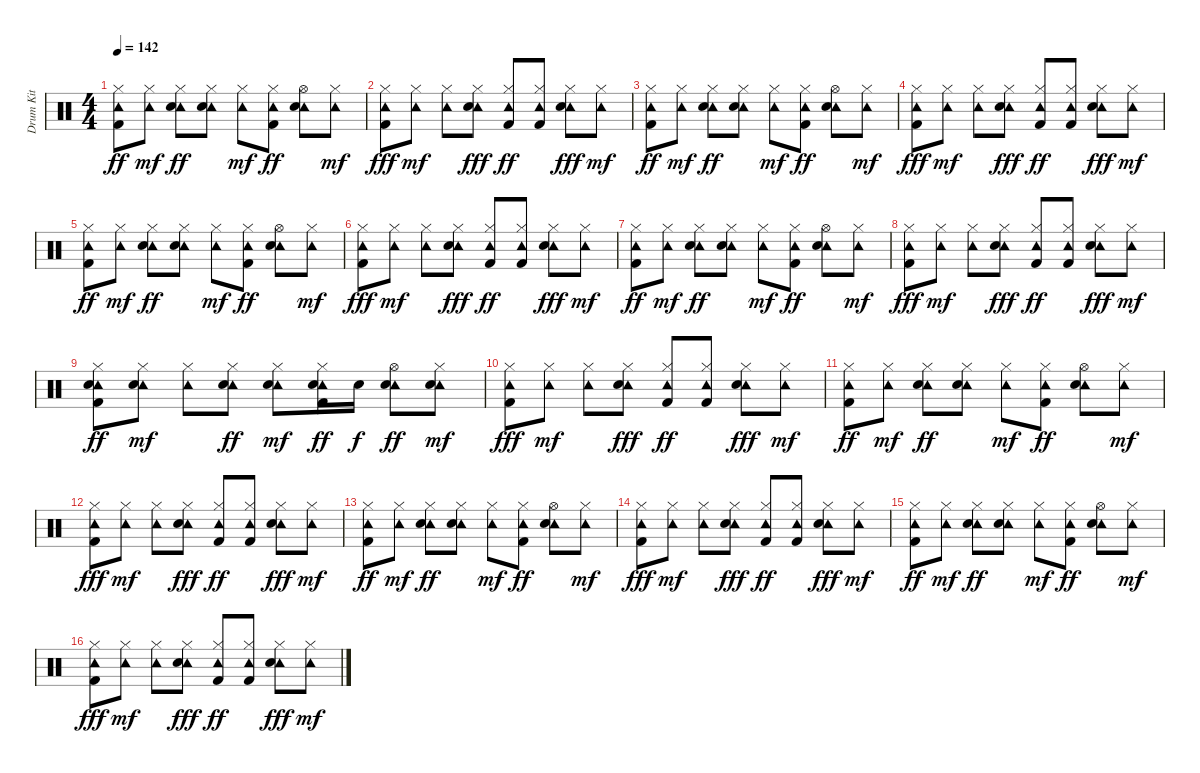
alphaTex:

\track ("Drum Kit" "Drum Kit") {instrument percussion}
\staff {score}
\articulation defaults
\ts (4 4)
\tempo 142
\clef neutral
\ks c
("Tambourine (hit)" "Hi-Hat (closed)" "Kick (hit) 2").8{dy ff} ("Tambourine (hit)" "Hi-Hat (closed)").8{dy mf} ("Tambourine (hit)" "Hi-Hat (closed)" "Electric Snare (hit)").8{dy ff} ("Tambourine (hit)" "Hi-Hat (closed)" "Electric Snare (hit)").8 ("Tambourine (hit)" "Hi-Hat (closed)").8{dy mf} ("Tambourine (hit)" "Hi-Hat (closed)" "Kick (hit) 2").8{dy ff} ("Tambourine (hit)" "Hi-Hat (open)" "Electric Snare (hit)").8 ("Tambourine (hit)" "Hi-Hat (closed)").8{dy mf} |
("Hi-Hat (closed)" "Tambourine (hit)" "Kick (hit) 2").8{dy fff} ("Tambourine (hit)" "Hi-Hat (closed)").8{dy mf} ("Tambourine (hit)" "Hi-Hat (closed)").8 ("Tambourine (hit)" "Hi-Hat (closed)" "Electric Snare (hit)").8{dy fff} ("Tambourine (hit)" "Hi-Hat (closed)" "Kick (hit) 2").8{dy ff} ("Tambourine (hit)" "Hi-Hat (closed)" "Kick (hit) 2").8 ("Tambourine (hit)" "Hi-Hat (closed)" "Electric Snare (hit)").8{dy fff} ("Tambourine (hit)" "Hi-Hat (closed)").8{dy mf} |
("Tambourine (hit)" "Hi-Hat (closed)" "Kick (hit) 2").8{dy ff} ("Tambourine (hit)" "Hi-Hat (closed)").8{dy mf} ("Tambourine (hit)" "Hi-Hat (closed)" "Electric Snare (hit)").8{dy ff} ("Tambourine (hit)" "Hi-Hat (closed)" "Electric Snare (hit)").8 ("Tambourine (hit)" "Hi-Hat (closed)").8{dy mf} ("Tambourine (hit)" "Hi-Hat (closed)" "Kick (hit) 2").8{dy ff} ("Tambourine (hit)" "Hi-Hat (open)" "Electric Snare (hit)").8 ("Tambourine (hit)" "Hi-Hat (closed)").8{dy mf} |
("Hi-Hat (closed)" "Tambourine (hit)" "Kick (hit) 2").8{dy fff} ("Tambourine (hit)" "Hi-Hat (closed)").8{dy mf} ("Tambourine (hit)" "Hi-Hat (closed)").8 ("Tambourine (hit)" "Hi-Hat (closed)" "Electric Snare (hit)").8{dy fff} ("Tambourine (hit)" "Hi-Hat (closed)" "Kick (hit) 2").8{dy ff} ("Tambourine (hit)" "Hi-Hat (closed)" "Kick (hit) 2").8 ("Tambourine (hit)" "Hi-Hat (closed)" "Electric Snare (hit)").8{dy fff} ("Tambourine (hit)" "Hi-Hat (closed)").8{dy mf} |
("Tambourine (hit)" "Hi-Hat (closed)" "Kick (hit) 2").8{dy ff} ("Tambourine (hit)" "Hi-Hat (closed)").8{dy mf} ("Tambourine (hit)" "Hi-Hat (closed)" "Electric Snare (hit)").8{dy ff} ("Tambourine (hit)" "Hi-Hat (closed)" "Electric Snare (hit)").8 ("Tambourine (hit)" "Hi-Hat (closed)").8{dy mf} ("Tambourine (hit)" "Hi-Hat (closed)" "Kick (hit) 2").8{dy ff} ("Tambourine (hit)" "Hi-Hat (open)" "Electric Snare (hit)").8 ("Tambourine (hit)" "Hi-Hat (closed)").8{dy mf} |
("Hi-Hat (closed)" "Tambourine (hit)" "Kick (hit) 2").8{dy fff} ("Tambourine (hit)" "Hi-Hat (closed)").8{dy mf} ("Tambourine (hit)" "Hi-Hat (closed)").8 ("Tambourine (hit)" "Hi-Hat (closed)" "Electric Snare (hit)").8{dy fff} ("Tambourine (hit)" "Hi-Hat (closed)" "Kick (hit) 2").8{dy ff} ("Tambourine (hit)" "Hi-Hat (closed)" "Kick (hit) 2").8 ("Tambourine (hit)" "Hi-Hat (closed)" "Electric Snare (hit)").8{dy fff} ("Tambourine (hit)" "Hi-Hat (closed)").8{dy mf} |
("Tambourine (hit)" "Hi-Hat (closed)" "Kick (hit) 2").8{dy ff} ("Tambourine (hit)" "Hi-Hat (closed)").8{dy mf} ("Tambourine (hit)" "Hi-Hat (closed)" "Electric Snare (hit)").8{dy ff} ("Tambourine (hit)" "Hi-Hat (closed)" "Electric Snare (hit)").8 ("Tambourine (hit)" "Hi-Hat (closed)").8{dy mf} ("Tambourine (hit)" "Hi-Hat (closed)" "Kick (hit) 2").8{dy ff} ("Tambourine (hit)" "Hi-Hat (open)" "Electric Snare (hit)").8 ("Tambourine (hit)" "Hi-Hat (closed)").8{dy mf} |
("Hi-Hat (closed)" "Tambourine (hit)" "Kick (hit) 2").8{dy fff} ("Tambourine (hit)" "Hi-Hat (closed)").8{dy mf} ("Tambourine (hit)" "Hi-Hat (closed)").8 ("Tambourine (hit)" "Hi-Hat (closed)" "Electric Snare (hit)").8{dy fff} ("Tambourine (hit)" "Hi-Hat (closed)" "Kick (hit) 2").8{dy ff} ("Tambourine (hit)" "Hi-Hat (closed)" "Kick (hit) 2").8 ("Tambourine (hit)" "Hi-Hat (closed)" "Electric Snare (hit)").8{dy fff} ("Tambourine (hit)" "Hi-Hat (closed)").8{dy mf} |
("Tambourine (hit)" "Hi-Hat (closed)" "Electric Snare (hit)" "Kick (hit) 2").8{dy ff} ("Tambourine (hit)" "Electric Snare (hit)" "Hi-Hat (closed)").8{dy mf} ("Tambourine (hit)" "Hi-Hat (closed)").8 ("Tambourine (hit)" "Hi-Hat (closed)" "Electric Snare (hit)").8{dy ff} ("Tambourine (hit)" "Electric Snare (hit)" "Hi-Hat (closed)").8{dy mf} ("Tambourine (hit)" "Electric Snare (hit)" "Hi-Hat (closed)" "Kick (hit) 2").16{dy ff} "Electric Snare (hit)".16{dy f} ("Tambourine (hit)" "Hi-Hat (open)" "Electric Snare (hit)").8{dy ff} ("Tambourine (hit)" "Electric Snare (hit)" "Hi-Hat (closed)").8{dy mf} |
("Hi-Hat (closed)" "Tambourine (hit)" "Kick (hit) 2").8{dy fff} ("Tambourine (hit)" "Hi-Hat (closed)").8{dy mf} ("Tambourine (hit)" "Hi-Hat (closed)").8 ("Tambourine (hit)" "Hi-Hat (closed)" "Electric Snare (hit)").8{dy fff} ("Tambourine (hit)" "Hi-Hat (closed)" "Kick (hit) 2").8{dy ff} ("Tambourine (hit)" "Hi-Hat (closed)" "Kick (hit) 2").8 ("Tambourine (hit)" "Hi-Hat (closed)" "Electric Snare (hit)").8{dy fff} ("Tambourine (hit)" "Hi-Hat (closed)").8{dy mf} |
("Tambourine (hit)" "Hi-Hat (closed)" "Kick (hit) 2").8{dy ff} ("Tambourine (hit)" "Hi-Hat (closed)").8{dy mf} ("Tambourine (hit)" "Hi-Hat (closed)" "Electric Snare (hit)").8{dy ff} ("Tambourine (hit)" "Hi-Hat (closed)" "Electric Snare (hit)").8 ("Tambourine (hit)" "Hi-Hat (closed)").8{dy mf} ("Tambourine (hit)" "Hi-Hat (closed)" "Kick (hit) 2").8{dy ff} ("Tambourine (hit)" "Hi-Hat (open)" "Electric Snare (hit)").8 ("Tambourine (hit)" "Hi-Hat (closed)").8{dy mf} |
("Hi-Hat (closed)" "Tambourine (hit)" "Kick (hit) 2").8{dy fff} ("Tambourine (hit)" "Hi-Hat (closed)").8{dy mf} ("Tambourine (hit)" "Hi-Hat (closed)").8 ("Tambourine (hit)" "Hi-Hat (closed)" "Electric Snare (hit)").8{dy fff} ("Tambourine (hit)" "Hi-Hat (closed)" "Kick (hit) 2").8{dy ff} ("Tambourine (hit)" "Hi-Hat (closed)" "Kick (hit) 2").8 ("Tambourine (hit)" "Hi-Hat (closed)" "Electric Snare (hit)").8{dy fff} ("Tambourine (hit)" "Hi-Hat (closed)").8{dy mf} |
("Tambourine (hit)" "Hi-Hat (closed)" "Kick (hit) 2").8{dy ff} ("Tambourine (hit)" "Hi-Hat (closed)").8{dy mf} ("Tambourine (hit)" "Hi-Hat (closed)" "Electric Snare (hit)").8{dy ff} ("Tambourine (hit)" "Hi-Hat (closed)" "Electric Snare (hit)").8 ("Tambourine (hit)" "Hi-Hat (closed)").8{dy mf} ("Tambourine (hit)" "Hi-Hat (closed)" "Kick (hit) 2").8{dy ff} ("Tambourine (hit)" "Hi-Hat (open)" "Electric Snare (hit)").8 ("Tambourine (hit)" "Hi-Hat (closed)").8{dy mf} |
("Hi-Hat (closed)" "Tambourine (hit)" "Kick (hit) 2").8{dy fff} ("Tambourine (hit)" "Hi-Hat (closed)").8{dy mf} ("Tambourine (hit)" "Hi-Hat (closed)").8 ("Tambourine (hit)" "Hi-Hat (closed)" "Electric Snare (hit)").8{dy fff} ("Tambourine (hit)" "Hi-Hat (closed)" "Kick (hit) 2").8{dy ff} ("Tambourine (hit)" "Hi-Hat (closed)" "Kick (hit) 2").8 ("Tambourine (hit)" "Hi-Hat (closed)" "Electric Snare (hit)").8{dy fff} ("Tambourine (hit)" "Hi-Hat (closed)").8{dy mf} |
("Tambourine (hit)" "Hi-Hat (closed)" "Kick (hit) 2").8{dy ff} ("Tambourine (hit)" "Hi-Hat (closed)").8{dy mf} ("Tambourine (hit)" "Hi-Hat (closed)" "Electric Snare (hit)").8{dy ff} ("Tambourine (hit)" "Hi-Hat (closed)" "Electric Snare (hit)").8 ("Tambourine (hit)" "Hi-Hat (closed)").8{dy mf} ("Tambourine (hit)" "Hi-Hat (closed)" "Kick (hit) 2").8{dy ff} ("Tambourine (hit)" "Hi-Hat (open)" "Electric Snare (hit)").8 ("Tambourine (hit)" "Hi-Hat (closed)").8{dy mf} |
("Hi-Hat (closed)" "Tambourine (hit)" "Kick (hit) 2").8{dy fff} ("Tambourine (hit)" "Hi-Hat (closed)").8{dy mf} ("Tambourine (hit)" "Hi-Hat (closed)").8 ("Tambourine (hit)" "Hi-Hat (closed)" "Electric Snare (hit)").8{dy fff} ("Tambourine (hit)" "Hi-Hat (closed)" "Kick (hit) 2").8{dy ff} ("Tambourine (hit)" "Hi-Hat (closed)" "Kick (hit) 2").8 ("Tambourine (hit)" "Hi-Hat (closed)" "Electric Snare (hit)").8{dy fff} ("Tambourine (hit)" "Hi-Hat (closed)").8{dy mf}
